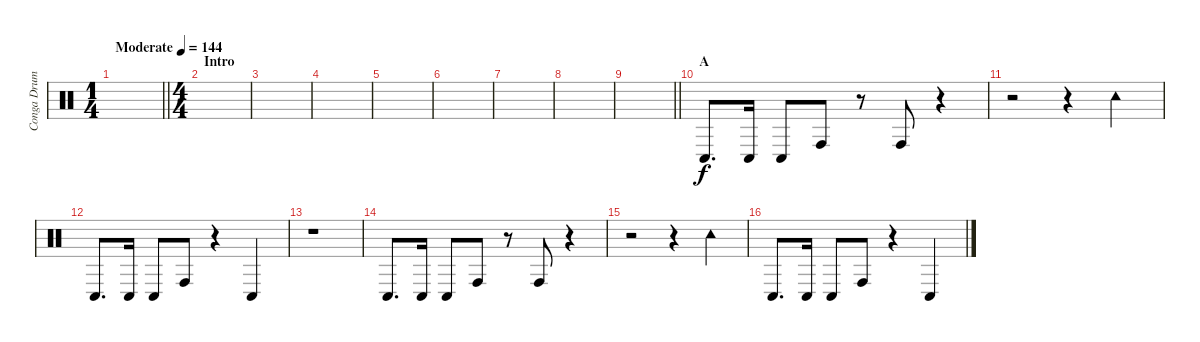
\track ("Conga Drums" "Conga Drum") {instrument percussion}
\staff {score}
\articulation defaults
\ts (1 4)
\tempo (144 "Moderate")
\clef neutral
\barLineRight lightlight
\ks c
|
\ts (4 4)
\section ("" "Intro")
|
|
|
|
|
|
|
\barLineRight lightlight
|
\section ("" "A")
"Conga low (hit)".8{d} "Conga low (hit)".16 "Conga low (hit)".8 "Conga high (hit)".8 r.8 "Conga high (hit)".8 r.4 |
r.2 r.4 "Tambourine (hit)".4 |
"Conga low (hit)".8{d} "Conga low (hit)".16 "Conga low (hit)".8 "Conga high (hit)".8 r.4 "Conga low (hit)".4 |
r.1 |
"Conga low (hit)".8{d} "Conga low (hit)".16 "Conga low (hit)".8 "Conga high (hit)".8 r.8 "Conga high (hit)".8 r.4 |
r.2 r.4 "Tambourine (hit)".4 |
"Conga low (hit)".8{d} "Conga low (hit)".16 "Conga low (hit)".8 "Conga high (hit)".8 r.4 "Conga low (hit)".4
